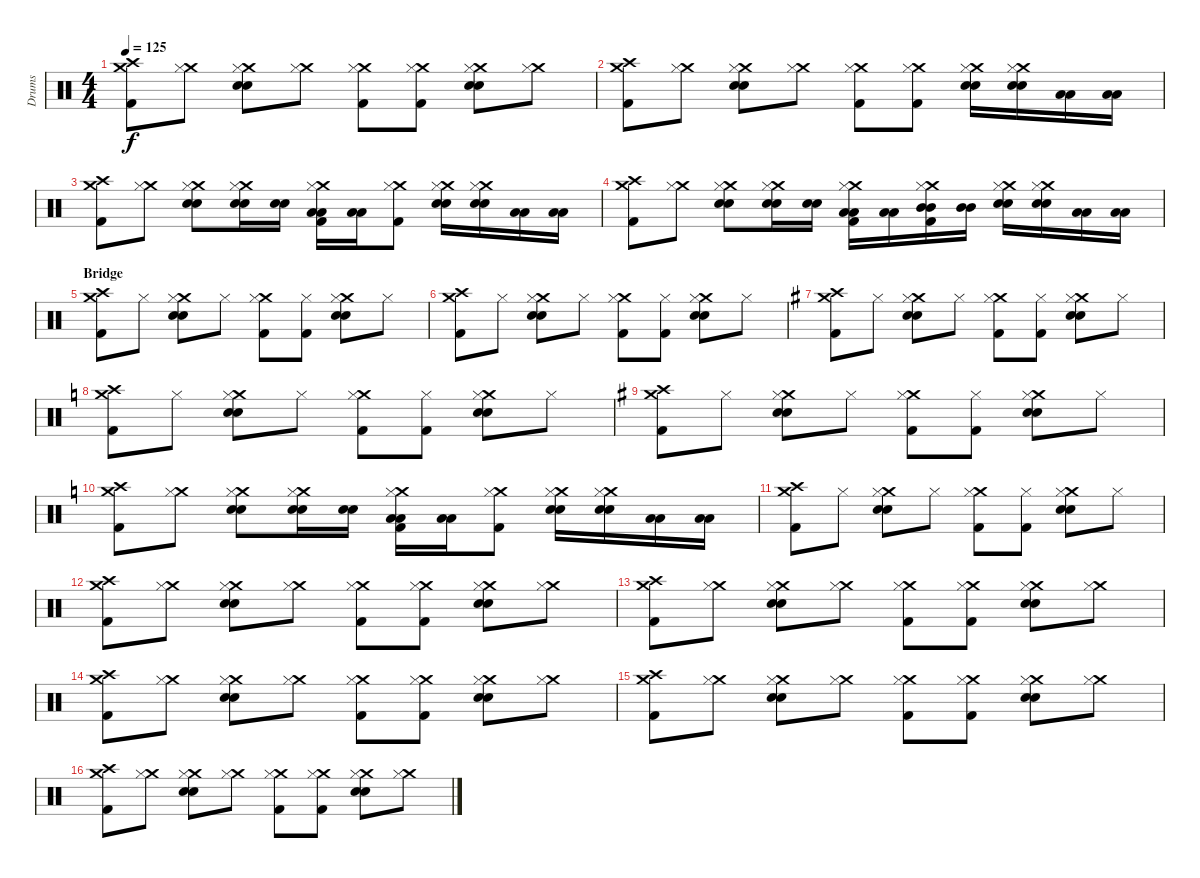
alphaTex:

\track ("Drums" "Drums") {instrument percussion}
\staff {score}
\articulation defaults
\ts (4 4)
\tempo 125
\clef neutral
\ks c
("Crash medium (hit)" "Crash high (hit)" "Kick (hit) 2").8{dy f} ("Crash medium (hit)" "Hi-Hat (closed)").8 ("Crash medium (hit)" "Hi-Hat (closed)" "Snare (hit) 2" "Snare (hit) 2").8 ("Crash medium (hit)" "Hi-Hat (closed)").8 ("Crash medium (hit)" "Hi-Hat (closed)" "Kick (hit) 2").8 ("Crash medium (hit)" "Hi-Hat (closed)" "Kick (hit) 2").8 ("Crash medium (hit)" "Hi-Hat (closed)" "Snare (hit) 2" "Snare (hit) 2").8 ("Crash medium (hit)" "Hi-Hat (closed)").8 |
("Crash medium (hit)" "Crash high (hit)" "Kick (hit) 2").8 ("Crash medium (hit)" "Hi-Hat (closed)").8 ("Crash medium (hit)" "Hi-Hat (closed)" "Snare (hit) 2" "Snare (hit) 2").8 ("Crash medium (hit)" "Hi-Hat (closed)").8 ("Crash medium (hit)" "Hi-Hat (closed)" "Kick (hit) 2").8 ("Crash medium (hit)" "Hi-Hat (closed)" "Kick (hit) 2").8 ("Crash medium (hit)" "Hi-Hat (closed)" "Snare (hit) 2" "Snare (hit) 2").16 ("Crash medium (hit)" "Hi-Hat (closed)" "Snare (hit) 2" "Snare (hit) 2").16 ("Low Floor Tom (hit)" "Low Floor Tom (hit)").16 ("Low Floor Tom (hit)" "Low Floor Tom (hit)").16 |
("Crash medium (hit)" "Crash high (hit)" "Kick (hit) 2").8 ("Crash medium (hit)" "Hi-Hat (closed)").8 ("Crash medium (hit)" "Hi-Hat (closed)" "Snare (hit) 2" "Snare (hit) 2").8 ("Crash medium (hit)" "Hi-Hat (closed)" "Snare (hit) 2" "Snare (hit) 2").16 ("Snare (hit) 2" "Snare (hit) 2").16 ("Crash medium (hit)" "Hi-Hat (closed)" "Low Floor Tom (hit)" "Low Floor Tom (hit)" "Kick (hit) 2").16 ("Low Floor Tom (hit)" "Low Floor Tom (hit)").16 ("Crash medium (hit)" "Hi-Hat (closed)" "Kick (hit) 2").8 ("Crash medium (hit)" "Hi-Hat (closed)" "Snare (hit) 2" "Snare (hit) 2").16 ("Crash medium (hit)" "Hi-Hat (closed)" "Snare (hit) 2" "Snare (hit) 2").16 ("Low Floor Tom (hit)" "Low Floor Tom (hit)").16 ("Low Floor Tom (hit)" "Low Floor Tom (hit)").16 |
("Crash medium (hit)" "Crash high (hit)" "Kick (hit) 2").8 ("Crash medium (hit)" "Hi-Hat (closed)").8 ("Crash medium (hit)" "Hi-Hat (closed)" "Snare (hit) 2" "Snare (hit) 2").8 ("Crash medium (hit)" "Hi-Hat (closed)" "Snare (hit) 2" "Snare (hit) 2").16 ("Snare (hit) 2" "Snare (hit) 2").16 ("Crash medium (hit)" "Hi-Hat (closed)" "Low Floor Tom (hit)" "Low Floor Tom (hit)" "Kick (hit) 2").16 ("Low Floor Tom (hit)" "Low Floor Tom (hit)").16 ("Crash medium (hit)" "Hi-Hat (closed)" "Mid Tom (hit)" "Mid Tom (hit)" "Kick (hit) 2").16 ("Mid Tom (hit)" "Mid Tom (hit)").16 ("Crash medium (hit)" "Hi-Hat (closed)" "Snare (hit) 2" "Snare (hit) 2").16 ("Crash medium (hit)" "Hi-Hat (closed)" "Snare (hit) 2" "Snare (hit) 2").16 ("Low Floor Tom (hit)" "Low Floor Tom (hit)").16 ("Low Floor Tom (hit)" "Low Floor Tom (hit)").16 |
\section ("" "Bridge")
("Crash medium (hit)" "Crash high (hit)" "Kick (hit) 2").8 "Hi-Hat (closed)".8 ("Crash medium (hit)" "Hi-Hat (closed)" "Snare (hit) 2" "Snare (hit) 2").8 "Hi-Hat (closed)".8 ("Crash medium (hit)" "Hi-Hat (closed)" "Kick (hit) 2").8 ("Hi-Hat (closed)" "Kick (hit) 2").8 ("Crash medium (hit)" "Hi-Hat (closed)" "Snare (hit) 2" "Snare (hit) 2").8 "Hi-Hat (closed)".8 |
("Crash medium (hit)" "Crash high (hit)" "Kick (hit) 2").8 "Hi-Hat (closed)".8 ("Crash medium (hit)" "Hi-Hat (closed)" "Snare (hit) 2" "Snare (hit) 2").8 "Hi-Hat (closed)".8 ("Crash medium (hit)" "Hi-Hat (closed)" "Kick (hit) 2").8 ("Hi-Hat (closed)" "Kick (hit) 2").8 ("Crash medium (hit)" "Hi-Hat (closed)" "Snare (hit) 2" "Snare (hit) 2").8 "Hi-Hat (closed)".8 |
\ks g
("Crash medium (hit)" "Crash high (hit)" "Kick (hit) 2").8 "Hi-Hat (closed)".8 ("Crash medium (hit)" "Hi-Hat (closed)" "Snare (hit) 2" "Snare (hit) 2").8 "Hi-Hat (closed)".8 ("Crash medium (hit)" "Hi-Hat (closed)" "Kick (hit) 2").8 ("Hi-Hat (closed)" "Kick (hit) 2").8 ("Crash medium (hit)" "Hi-Hat (closed)" "Snare (hit) 2" "Snare (hit) 2").8 "Hi-Hat (closed)".8 |
\ks c
("Crash medium (hit)" "Crash high (hit)" "Kick (hit) 2").8 "Hi-Hat (closed)".8 ("Crash medium (hit)" "Hi-Hat (closed)" "Snare (hit) 2" "Snare (hit) 2").8 "Hi-Hat (closed)".8 ("Crash medium (hit)" "Hi-Hat (closed)" "Kick (hit) 2").8 ("Hi-Hat (closed)" "Kick (hit) 2").8 ("Crash medium (hit)" "Hi-Hat (closed)" "Snare (hit) 2" "Snare (hit) 2").8 "Hi-Hat (closed)".8 |
\ks g
("Crash medium (hit)" "Crash high (hit)" "Kick (hit) 2").8 "Hi-Hat (closed)".8 ("Crash medium (hit)" "Hi-Hat (closed)" "Snare (hit) 2" "Snare (hit) 2").8 "Hi-Hat (closed)".8 ("Crash medium (hit)" "Hi-Hat (closed)" "Kick (hit) 2").8 ("Hi-Hat (closed)" "Kick (hit) 2").8 ("Crash medium (hit)" "Hi-Hat (closed)" "Snare (hit) 2" "Snare (hit) 2").8 "Hi-Hat (closed)".8 |
\ks c
("Crash medium (hit)" "Crash high (hit)" "Kick (hit) 2").8 ("Crash medium (hit)" "Hi-Hat (closed)").8 ("Crash medium (hit)" "Hi-Hat (closed)" "Snare (hit) 2" "Snare (hit) 2").8 ("Crash medium (hit)" "Hi-Hat (closed)" "Snare (hit) 2" "Snare (hit) 2").16 ("Snare (hit) 2" "Snare (hit) 2").16 ("Crash medium (hit)" "Hi-Hat (closed)" "Low Floor Tom (hit)" "Low Floor Tom (hit)" "Kick (hit) 2").16 ("Low Floor Tom (hit)" "Low Floor Tom (hit)").16 ("Crash medium (hit)" "Hi-Hat (closed)" "Kick (hit) 2").8 ("Crash medium (hit)" "Hi-Hat (closed)" "Snare (hit) 2" "Snare (hit) 2").16 ("Crash medium (hit)" "Hi-Hat (closed)" "Snare (hit) 2" "Snare (hit) 2").16 ("Low Floor Tom (hit)" "Low Floor Tom (hit)").16 ("Low Floor Tom (hit)" "Low Floor Tom (hit)").16 |
("Crash medium (hit)" "Crash high (hit)" "Kick (hit) 2").8 "Hi-Hat (closed)".8 ("Crash medium (hit)" "Hi-Hat (closed)" "Snare (hit) 2" "Snare (hit) 2").8 "Hi-Hat (closed)".8 ("Crash medium (hit)" "Hi-Hat (closed)" "Kick (hit) 2").8 ("Hi-Hat (closed)" "Kick (hit) 2").8 ("Crash medium (hit)" "Hi-Hat (closed)" "Snare (hit) 2" "Snare (hit) 2").8 "Hi-Hat (closed)".8 |
("Crash medium (hit)" "Crash high (hit)" "Kick (hit) 2").8 ("Crash medium (hit)" "Hi-Hat (closed)").8 ("Crash medium (hit)" "Hi-Hat (closed)" "Snare (hit) 2" "Snare (hit) 2").8 ("Crash medium (hit)" "Hi-Hat (closed)").8 ("Crash medium (hit)" "Hi-Hat (closed)" "Kick (hit) 2").8 ("Crash medium (hit)" "Hi-Hat (closed)" "Kick (hit) 2").8 ("Crash medium (hit)" "Hi-Hat (closed)" "Snare (hit) 2" "Snare (hit) 2").8 ("Crash medium (hit)" "Hi-Hat (closed)").8 |
("Crash medium (hit)" "Crash high (hit)" "Kick (hit) 2").8 ("Crash medium (hit)" "Hi-Hat (closed)").8 ("Crash medium (hit)" "Hi-Hat (closed)" "Snare (hit) 2" "Snare (hit) 2").8 ("Crash medium (hit)" "Hi-Hat (closed)").8 ("Crash medium (hit)" "Hi-Hat (closed)" "Kick (hit) 2").8 ("Crash medium (hit)" "Hi-Hat (closed)" "Kick (hit) 2").8 ("Crash medium (hit)" "Hi-Hat (closed)" "Snare (hit) 2" "Snare (hit) 2").8 ("Crash medium (hit)" "Hi-Hat (closed)").8 |
("Crash medium (hit)" "Crash high (hit)" "Kick (hit) 2").8 ("Crash medium (hit)" "Hi-Hat (closed)").8 ("Crash medium (hit)" "Hi-Hat (closed)" "Snare (hit) 2" "Snare (hit) 2").8 ("Crash medium (hit)" "Hi-Hat (closed)").8 ("Crash medium (hit)" "Hi-Hat (closed)" "Kick (hit) 2").8 ("Crash medium (hit)" "Hi-Hat (closed)" "Kick (hit) 2").8 ("Crash medium (hit)" "Hi-Hat (closed)" "Snare (hit) 2" "Snare (hit) 2").8 ("Crash medium (hit)" "Hi-Hat (closed)").8 |
("Crash medium (hit)" "Crash high (hit)" "Kick (hit) 2").8 ("Crash medium (hit)" "Hi-Hat (closed)").8 ("Crash medium (hit)" "Hi-Hat (closed)" "Snare (hit) 2" "Snare (hit) 2").8 ("Crash medium (hit)" "Hi-Hat (closed)").8 ("Crash medium (hit)" "Hi-Hat (closed)" "Kick (hit) 2").8 ("Crash medium (hit)" "Hi-Hat (closed)" "Kick (hit) 2").8 ("Crash medium (hit)" "Hi-Hat (closed)" "Snare (hit) 2" "Snare (hit) 2").8 ("Crash medium (hit)" "Hi-Hat (closed)").8 |
("Crash medium (hit)" "Crash high (hit)" "Kick (hit) 2").8 ("Crash medium (hit)" "Hi-Hat (closed)").8 ("Crash medium (hit)" "Hi-Hat (closed)" "Snare (hit) 2" "Snare (hit) 2").8 ("Crash medium (hit)" "Hi-Hat (closed)").8 ("Crash medium (hit)" "Hi-Hat (closed)" "Kick (hit) 2").8 ("Crash medium (hit)" "Hi-Hat (closed)" "Kick (hit) 2").8 ("Crash medium (hit)" "Hi-Hat (closed)" "Snare (hit) 2" "Snare (hit) 2").8 ("Crash medium (hit)" "Hi-Hat (closed)").8
